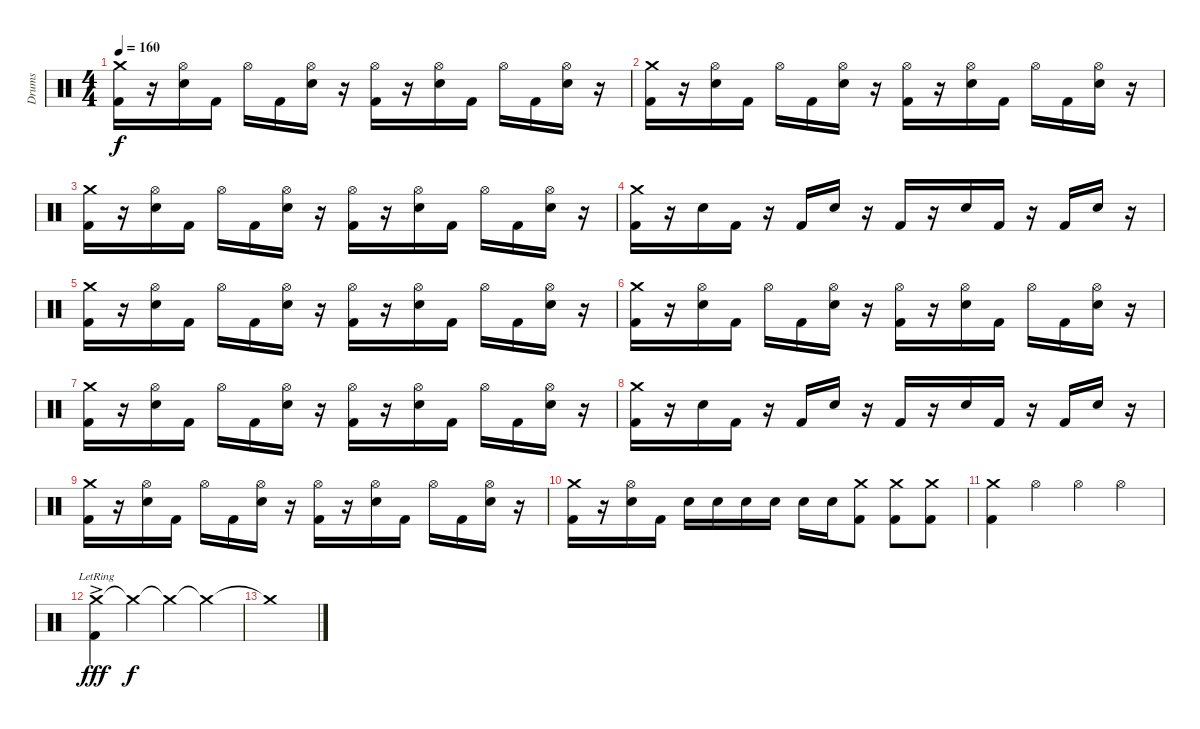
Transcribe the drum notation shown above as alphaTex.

\track ("Drums" "Drums") {instrument percussion}
\staff {score}
\articulation defaults
\ts (4 4)
\tempo 160
\clef neutral
\ks c
("Crash medium (hit)" "Kick (hit) 2").16{dy f} r.16 ("Snare (hit) 2" "Hi-Hat (open)").16 "Kick (hit) 2".16 "Hi-Hat (open)".16 "Kick (hit) 2".16 ("Snare (hit) 2" "Hi-Hat (open)").16 r.16 ("Hi-Hat (open)" "Kick (hit) 2").16 r.16 ("Snare (hit) 2" "Hi-Hat (open)").16 "Kick (hit) 2".16 "Hi-Hat (open)".16 "Kick (hit) 2".16 ("Snare (hit) 2" "Hi-Hat (open)").16 r.16 |
("Crash medium (hit)" "Kick (hit) 2").16 r.16 ("Snare (hit) 2" "Hi-Hat (open)").16 "Kick (hit) 2".16 "Hi-Hat (open)".16 "Kick (hit) 2".16 ("Snare (hit) 2" "Hi-Hat (open)").16 r.16 ("Hi-Hat (open)" "Kick (hit) 2").16 r.16 ("Snare (hit) 2" "Hi-Hat (open)").16 "Kick (hit) 2".16 "Hi-Hat (open)".16 "Kick (hit) 2".16 ("Snare (hit) 2" "Hi-Hat (open)").16 r.16 |
("Crash medium (hit)" "Kick (hit) 2").16 r.16 ("Snare (hit) 2" "Hi-Hat (open)").16 "Kick (hit) 2".16 "Hi-Hat (open)".16 "Kick (hit) 2".16 ("Snare (hit) 2" "Hi-Hat (open)").16 r.16 ("Hi-Hat (open)" "Kick (hit) 2").16 r.16 ("Snare (hit) 2" "Hi-Hat (open)").16 "Kick (hit) 2".16 "Hi-Hat (open)".16 "Kick (hit) 2".16 ("Snare (hit) 2" "Hi-Hat (open)").16 r.16 |
("Crash medium (hit)" "Kick (hit) 2").16 r.16 "Snare (hit) 2".16 "Kick (hit) 2".16 r.16 "Kick (hit) 2".16 "Snare (hit) 2".16 r.16 "Kick (hit) 2".16 r.16 "Snare (hit) 2".16 "Kick (hit) 2".16 r.16 "Kick (hit) 2".16 "Snare (hit) 2".16 r.16 |
("Crash medium (hit)" "Kick (hit) 2").16 r.16 ("Snare (hit) 2" "Hi-Hat (open)").16 "Kick (hit) 2".16 "Hi-Hat (open)".16 "Kick (hit) 2".16 ("Snare (hit) 2" "Hi-Hat (open)").16 r.16 ("Hi-Hat (open)" "Kick (hit) 2").16 r.16 ("Snare (hit) 2" "Hi-Hat (open)").16 "Kick (hit) 2".16 "Hi-Hat (open)".16 "Kick (hit) 2".16 ("Snare (hit) 2" "Hi-Hat (open)").16 r.16 |
("Crash medium (hit)" "Kick (hit) 2").16 r.16 ("Snare (hit) 2" "Hi-Hat (open)").16 "Kick (hit) 2".16 "Hi-Hat (open)".16 "Kick (hit) 2".16 ("Snare (hit) 2" "Hi-Hat (open)").16 r.16 ("Hi-Hat (open)" "Kick (hit) 2").16 r.16 ("Snare (hit) 2" "Hi-Hat (open)").16 "Kick (hit) 2".16 "Hi-Hat (open)".16 "Kick (hit) 2".16 ("Snare (hit) 2" "Hi-Hat (open)").16 r.16 |
("Crash medium (hit)" "Kick (hit) 2").16 r.16 ("Snare (hit) 2" "Hi-Hat (open)").16 "Kick (hit) 2".16 "Hi-Hat (open)".16 "Kick (hit) 2".16 ("Snare (hit) 2" "Hi-Hat (open)").16 r.16 ("Hi-Hat (open)" "Kick (hit) 2").16 r.16 ("Snare (hit) 2" "Hi-Hat (open)").16 "Kick (hit) 2".16 "Hi-Hat (open)".16 "Kick (hit) 2".16 ("Snare (hit) 2" "Hi-Hat (open)").16 r.16 |
("Crash medium (hit)" "Kick (hit) 2").16 r.16 "Snare (hit) 2".16 "Kick (hit) 2".16 r.16 "Kick (hit) 2".16 "Snare (hit) 2".16 r.16 "Kick (hit) 2".16 r.16 "Snare (hit) 2".16 "Kick (hit) 2".16 r.16 "Kick (hit) 2".16 "Snare (hit) 2".16 r.16 |
("Crash medium (hit)" "Kick (hit) 2").16 r.16 ("Snare (hit) 2" "Hi-Hat (open)").16 "Kick (hit) 2".16 "Hi-Hat (open)".16 "Kick (hit) 2".16 ("Snare (hit) 2" "Hi-Hat (open)").16 r.16 ("Hi-Hat (open)" "Kick (hit) 2").16 r.16 ("Snare (hit) 2" "Hi-Hat (open)").16 "Kick (hit) 2".16 "Hi-Hat (open)".16 "Kick (hit) 2".16 ("Snare (hit) 2" "Hi-Hat (open)").16 r.16 |
("Crash medium (hit)" "Kick (hit) 2").16 r.16 ("Snare (hit) 2" "Hi-Hat (open)").16 "Kick (hit) 2".16 "Snare (hit) 2".16 "Snare (hit) 2".16 "Snare (hit) 2".16 "Snare (hit) 2".16 "Snare (hit) 2".16 "Snare (hit) 2".16 ("Crash medium (hit)" "Kick (hit) 2").8 ("Crash medium (hit)" "Kick (hit) 2").8 ("Crash medium (hit)" "Kick (hit) 2").8 |
("Crash medium (hit)" "Kick (hit) 2").4 "Hi-Hat (open)".4 "Hi-Hat (open)".4 "Hi-Hat (open)".4 |
("Crash medium (hit)"{ac lr} "Kick (hit) 2"{ac}).4{dy fff} "Crash medium (hit)"{t}.4{dy f} "Crash medium (hit)"{t}.4 "Crash medium (hit)"{t}.4 |
"Crash medium (hit)"{t}.1
